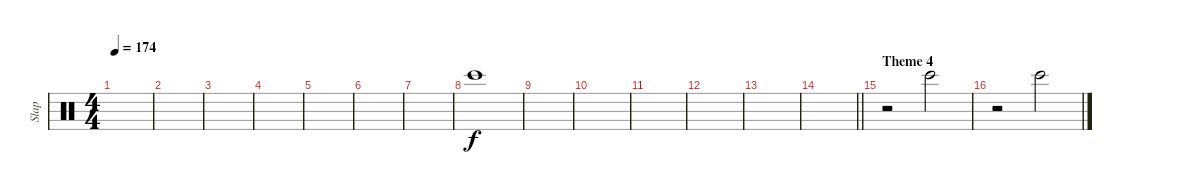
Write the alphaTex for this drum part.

\track ("Slap" "Slap") {instrument percussion}
\staff {score}
\articulation defaults
\ts (4 4)
\tempo 174
\clef neutral
\ks c
|
|
|
|
|
|
|
"Bongo High (hit)".1 |
|
|
|
|
|
\barLineRight lightlight
|
\section ("" "Theme 4")
r.2 "Bongo High (hit)".2 |
r.2 "Bongo High (hit)".2
